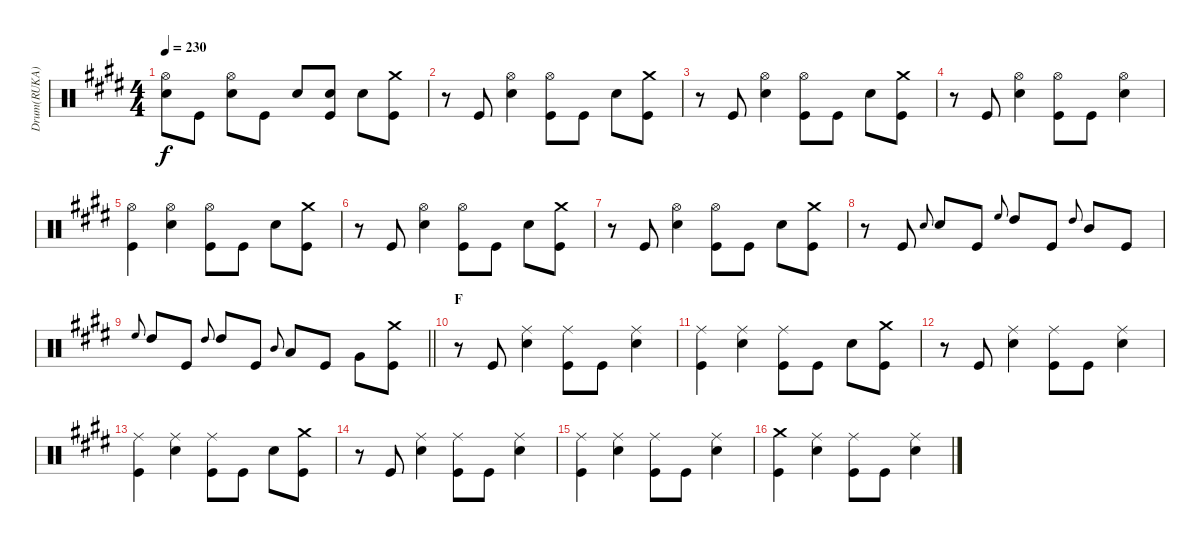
\track ("Drum(RUKA)" "Drum(RUKA)") {instrument percussion}
\staff {score}
\articulation defaults
\ts (4 4)
\tempo 230
\clef neutral
\ks e
("Hi-Hat (open)" "Electric Snare (hit)").8{dy f} "Kick (hit)".8 ("Hi-Hat (open)" "Electric Snare (hit)").8 "Kick (hit)".8 "Electric Snare (hit)".8 ("Electric Snare (hit)" "Kick (hit)").8 "Electric Snare (hit)".8 ("Crash medium (hit)" "Kick (hit)").8 |
r.8 "Kick (hit)".8 ("Hi-Hat (open)" "Electric Snare (hit)").4 ("Hi-Hat (open)" "Kick (hit)").8 "Kick (hit)".8 "Electric Snare (hit)".8 ("Crash medium (hit)" "Kick (hit)").8 |
r.8 "Kick (hit)".8 ("Hi-Hat (open)" "Electric Snare (hit)").4 ("Hi-Hat (open)" "Kick (hit)").8 "Kick (hit)".8 "Electric Snare (hit)".8 ("Crash medium (hit)" "Kick (hit)").8 |
r.8 "Kick (hit)".8 ("Hi-Hat (open)" "Electric Snare (hit)").4 ("Hi-Hat (open)" "Kick (hit)").8 "Kick (hit)".8 ("Hi-Hat (open)" "Electric Snare (hit)").4 |
("Hi-Hat (open)" "Kick (hit)").4 ("Hi-Hat (open)" "Electric Snare (hit)").4 ("Hi-Hat (open)" "Kick (hit)").8 "Kick (hit)".8 "Electric Snare (hit)".8 ("Crash medium (hit)" "Kick (hit)").8 |
r.8 "Kick (hit)".8 ("Hi-Hat (open)" "Electric Snare (hit)").4 ("Hi-Hat (open)" "Kick (hit)").8 "Kick (hit)".8 "Electric Snare (hit)".8 ("Crash medium (hit)" "Kick (hit)").8 |
r.8 "Kick (hit)".8 ("Hi-Hat (open)" "Electric Snare (hit)").4 ("Hi-Hat (open)" "Kick (hit)").8 "Kick (hit)".8 "Electric Snare (hit)".8 ("Crash medium (hit)" "Kick (hit)").8 |
r.8 "Kick (hit)".8 "Electric Snare (hit)".8{gr onbeat} "Electric Snare (hit)".8 "Kick (hit)".8 "High Floor Tom (hit)".8{gr onbeat} "High Tom (hit)".8 "Kick (hit)".8 "High Tom (hit)".8{gr onbeat} "Mid Tom (hit)".8 "Kick (hit)".8 |
\barLineRight lightlight "High Floor Tom (hit)".8{gr onbeat} "High Tom (hit)".8 "Kick (hit)".8 "High Tom (hit)".8{gr onbeat} "High Tom (hit)".8 "Kick (hit)".8 "Mid Tom (hit)".8{gr onbeat} "Low Tom (hit)".8 "Kick (hit)".8 "Very Low Tom (hit)".8
("Crash medium (hit)" "Kick (hit)").8 |
\section ("" "F")
r.8 "Kick (hit)".8 ("Ride (middle)" "Electric Snare (hit)").4 ("Ride (middle)" "Kick (hit)").8 "Kick (hit)".8 ("Ride (middle)" "Electric Snare (hit)").4 |
("Ride (middle)" "Kick (hit)").4 ("Ride (middle)" "Electric Snare (hit)").4 ("Ride (middle)" "Kick (hit)").8 "Kick (hit)".8 "Electric Snare (hit)".8 ("Crash medium (hit)" "Kick (hit)").8 |
r.8 "Kick (hit)".8 ("Ride (middle)" "Electric Snare (hit)").4 ("Ride (middle)" "Kick (hit)").8 "Kick (hit)".8 ("Ride (middle)" "Electric Snare (hit)").4 |
("Ride (middle)" "Kick (hit)").4 ("Ride (middle)" "Electric Snare (hit)").4 ("Ride (middle)" "Kick (hit)").8 "Kick (hit)".8 "Electric Snare (hit)".8 ("Crash medium (hit)" "Kick (hit)").8 |
r.8 "Kick (hit)".8 ("Ride (middle)" "Electric Snare (hit)").4 ("Ride (middle)" "Kick (hit)").8 "Kick (hit)".8 ("Ride (middle)" "Electric Snare (hit)").4 |
("Ride (middle)" "Kick (hit)").4 ("Ride (middle)" "Electric Snare (hit)").4 ("Ride (middle)" "Kick (hit)").8 "Kick (hit)".8 ("Ride (middle)" "Electric Snare (hit)").4 |
("Crash medium (hit)" "Kick (hit)").4 ("Ride (middle)" "Electric Snare (hit)").4 ("Ride (middle)" "Kick (hit)").8 "Kick (hit)".8 ("Ride (middle)" "Electric Snare (hit)").4
